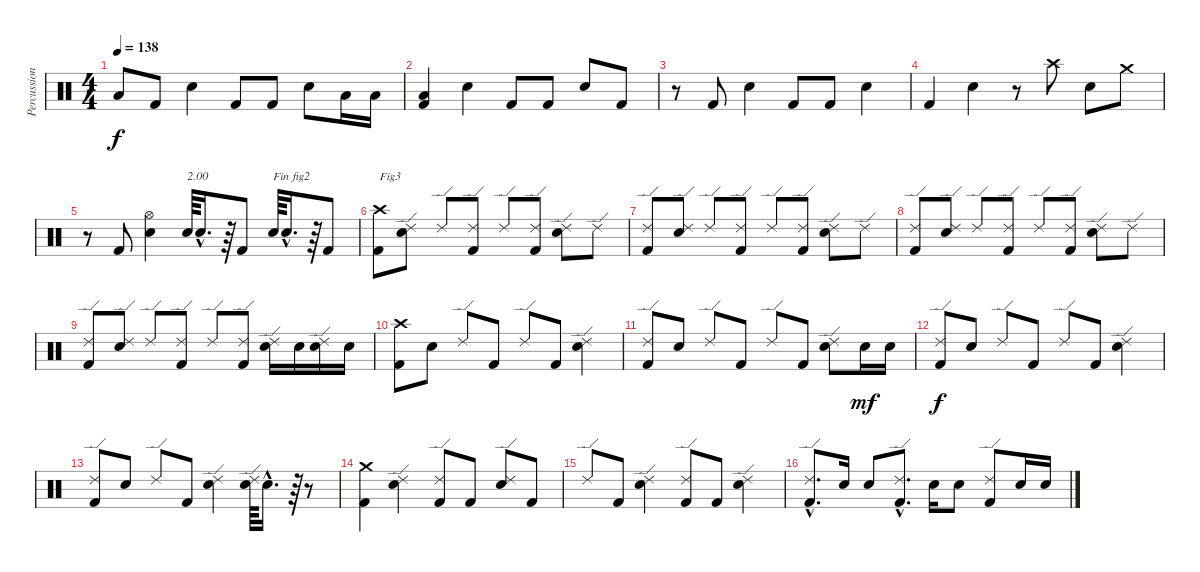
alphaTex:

\track ("Percussions" "Percussion") {instrument percussion}
\staff {score}
\articulation defaults
\ts (4 4)
\tempo 138
\clef neutral
\ks c "Low Floor Tom (hit)".8{dy f} "Kick (hit) 2".8 "Electric Snare (hit)".4 "Kick (hit) 2".8 "Kick (hit) 2".8 "Electric Snare (hit)".8 "Low Floor Tom (hit)".16 "Low Floor Tom (hit)".16
|
("Kick (hit) 2" "Low Floor Tom (hit)").4 "Electric Snare (hit)".4 "Kick (hit) 2".8 "Kick (hit) 2".8 "Electric Snare (hit)".8 "Kick (hit) 2".8 |
r.8 "Kick (hit) 2".8 "Electric Snare (hit)".4 "Kick (hit) 2".8 "Kick (hit) 2".8 "Electric Snare (hit)".4 |
"Kick (hit) 2".4 "Electric Snare (hit)".4 r.8 "Crash high (hit)".8 "Electric Snare (hit)".8 "Crash medium (hit)".8 |
r.8 "Kick (hit) 2".8 ("Electric Snare (hit)" "Hi-Hat (open)").4 "Electric Snare (hit)".64{txt "2.00"} "Electric Snare (hit)"{hac}.16{d} r.64 "Kick (hit) 2".8 "Electric Snare (hit)".64{txt "Fin fig2"} "Electric Snare (hit)"{hac}.16{d} r.64 "Kick (hit) 2".8 |
("Kick (hit) 2" "Crash high (hit)").8{txt "Fig3"} ("Electric Snare (hit)" "Ride (edge) 2").8 "Ride (edge) 2".8 ("Kick (hit) 2" "Ride (edge) 2").8 "Ride (edge) 2".8 ("Kick (hit) 2" "Ride (edge) 2").8 ("Electric Snare (hit)" "Ride (edge) 2").8 "Ride (edge) 2".8 |
("Kick (hit) 2" "Ride (edge) 2").8 ("Electric Snare (hit)" "Ride (edge) 2").8 "Ride (edge) 2".8 ("Kick (hit) 2" "Ride (edge) 2").8 "Ride (edge) 2".8 ("Kick (hit) 2" "Ride (edge) 2").8 ("Electric Snare (hit)" "Ride (edge) 2").8 "Ride (edge) 2".8 |
("Kick (hit) 2" "Ride (edge) 2").8 ("Electric Snare (hit)" "Ride (edge) 2").8 "Ride (edge) 2".8 ("Kick (hit) 2" "Ride (edge) 2").8 "Ride (edge) 2".8 ("Kick (hit) 2" "Ride (edge) 2").8 ("Electric Snare (hit)" "Ride (edge) 2").8 "Ride (edge) 2".8 |
("Kick (hit) 2" "Ride (edge) 2").8 ("Electric Snare (hit)" "Ride (edge) 2").8 "Ride (edge) 2".8 ("Kick (hit) 2" "Ride (edge) 2").8 "Ride (edge) 2".8 ("Kick (hit) 2" "Ride (edge) 2").8 ("Electric Snare (hit)" "Ride (edge) 2").16 "Electric Snare (hit)".16 ("Electric Snare (hit)" "Ride (edge) 2").16 "Electric Snare (hit)".16 |
("Kick (hit) 2" "Crash high (hit)").8 "Electric Snare (hit)".8 "Ride (edge) 2".8 "Kick (hit) 2".8 "Ride (edge) 2".8 "Kick (hit) 2".8 ("Electric Snare (hit)" "Ride (edge) 2").4 |
("Kick (hit) 2" "Ride (edge) 2").8 "Electric Snare (hit)".8 "Ride (edge) 2".8 "Kick (hit) 2".8 "Ride (edge) 2".8 "Kick (hit) 2".8 ("Electric Snare (hit)" "Ride (edge) 2").8 "Electric Snare (hit)".16{dy mf} "Electric Snare (hit)".16 |
("Kick (hit) 2" "Ride (edge) 2").8{dy f} "Electric Snare (hit)".8 "Ride (edge) 2".8 "Kick (hit) 2".8 "Ride (edge) 2".8 "Kick (hit) 2".8 ("Electric Snare (hit)" "Ride (edge) 2").4 |
("Kick (hit) 2" "Ride (edge) 2").8 "Electric Snare (hit)".8 "Ride (edge) 2".8 "Kick (hit) 2".8 ("Electric Snare (hit)" "Ride (edge) 2").4 ("Electric Snare (hit)" "Ride (edge) 2").64 "Electric Snare (hit)"{hac}.16{d} r.64 r.8 |
("Kick (hit) 2" "Crash medium (hit)").4 ("Electric Snare (hit)" "Ride (edge) 2").4 ("Kick (hit) 2" "Ride (edge) 2").8 "Kick (hit) 2".8 ("Electric Snare (hit)" "Ride (edge) 2").8 "Kick (hit) 2".8 |
"Ride (edge) 2".8 "Kick (hit) 2".8 ("Electric Snare (hit)" "Ride (edge) 2").4 ("Kick (hit) 2" "Ride (edge) 2").8 "Kick (hit) 2".8 ("Electric Snare (hit)" "Ride (edge) 2").4 |
("Kick (hit) 2"{hac} "Ride (edge) 2"{hac}).8{d} "Electric Snare (hit)".16 "Electric Snare (hit)".8 ("Kick (hit) 2"{hac} "Ride (edge) 2"{hac}).8{d} "Electric Snare (hit)".16 "Electric Snare (hit)".8 ("Kick (hit) 2" "Ride (edge) 2").8 "Electric Snare (hit)".16 "Electric Snare (hit)".16
